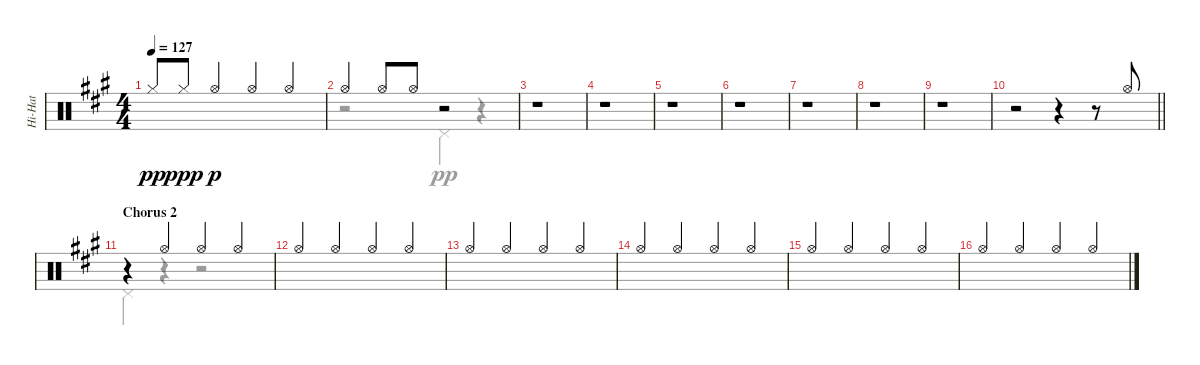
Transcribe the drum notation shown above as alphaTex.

\track ("Hi-Hat" "Hi-Hat") {instrument percussion}
\staff {score}
\articulation defaults
\voice
\ts (4 4)
\tempo 127
\clef neutral
\ks a "Hi-Hat (closed)".8{dy pp beam Up} "Hi-Hat (closed)".8{dy ppp beam Up} "Hi-Hat (open)".4{dy p beam Up} "Hi-Hat (open)".4{beam Up} "Hi-Hat (open)".4{beam Up}
|
"Hi-Hat (open)".4{beam Up} "Hi-Hat (open)".8{beam Up} "Hi-Hat (open)".8{beam Up} r.2 |
r.1 |
r.1 |
r.1 |
r.1 |
r.1 |
r.1 |
r.1 |
\barLineRight lightlight
r.2 r.4 r.8 "Hi-Hat (open)".8{beam Up} |
\section ("" "Chorus 2")
r.4 "Hi-Hat (open)".4{beam Up} "Hi-Hat (open)".4{beam Up} "Hi-Hat (open)".4{beam Up} |
"Hi-Hat (open)".4{beam Up} "Hi-Hat (open)".4{beam Up} "Hi-Hat (open)".4{beam Up} "Hi-Hat (open)".4{beam Up} |
"Hi-Hat (open)".4{beam Up} "Hi-Hat (open)".4{beam Up} "Hi-Hat (open)".4{beam Up} "Hi-Hat (open)".4{beam Up} |
"Hi-Hat (open)".4{beam Up} "Hi-Hat (open)".4{beam Up} "Hi-Hat (open)".4{beam Up} "Hi-Hat (open)".4{beam Up} |
"Hi-Hat (open)".4{beam Up} "Hi-Hat (open)".4{beam Up} "Hi-Hat (open)".4{beam Up} "Hi-Hat (open)".4{beam Up} |
"Hi-Hat (open)".4{beam Up} "Hi-Hat (open)".4{beam Up} "Hi-Hat (open)".4{beam Up} "Hi-Hat (open)".4{beam Up}
\voice
\clef neutral
\ottava regular
\simile none
\ks a
|
r.2 "Pedal Hi-Hat (hit)".4{dy pp} r.4 |
|
|
|
|
|
|
|
\barLineRight lightlight
|
"Pedal Hi-Hat (hit)".4 r.4 r.2 |
|
|
|
|
